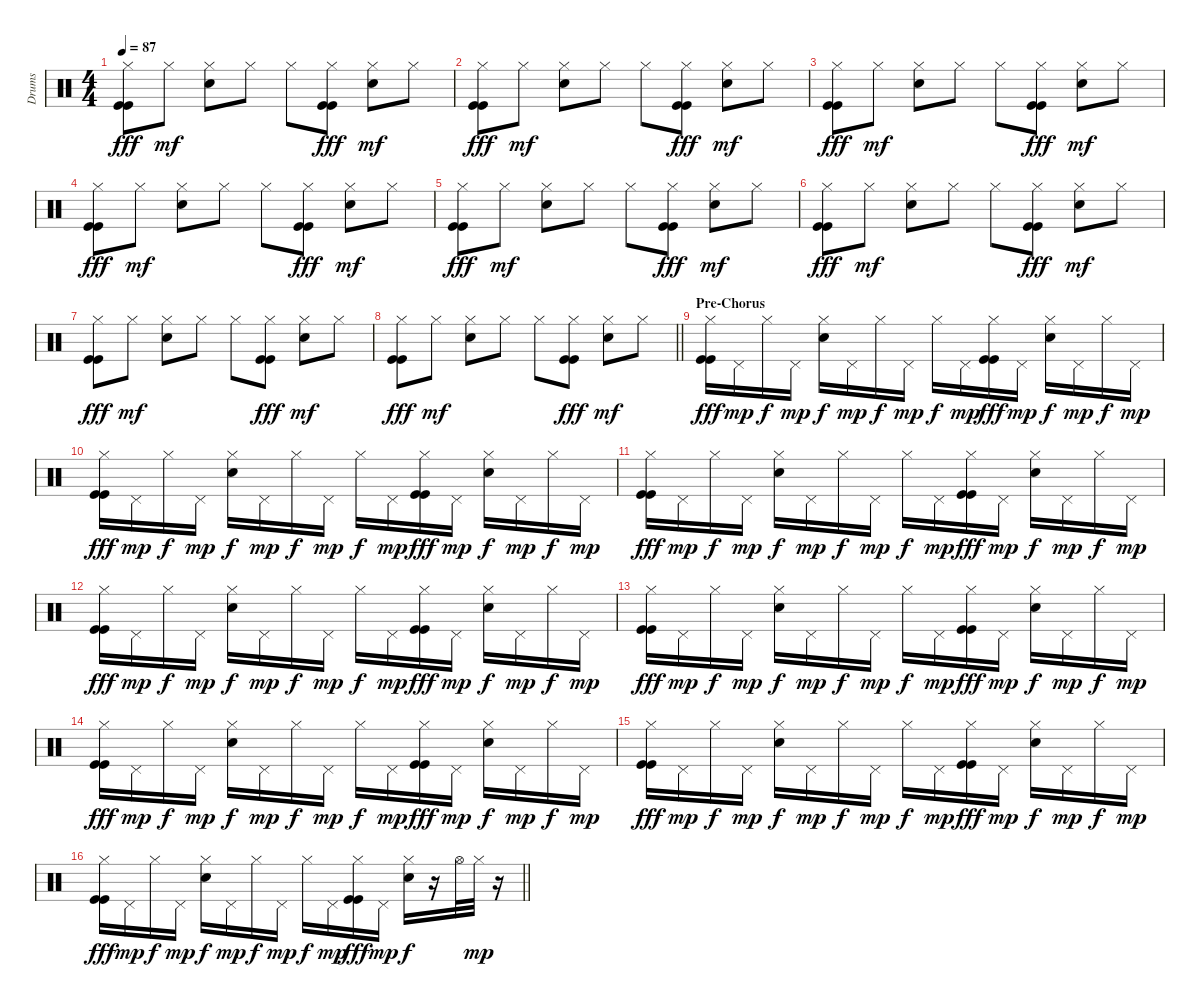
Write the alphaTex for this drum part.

\track ("Drums" "Drums") {instrument percussion}
\staff {score}
\articulation defaults
\ts (4 4)
\tempo 87
\clef neutral
\ks c
("Hi-Hat (closed)" "Kick (hit)" "Kick (hit)").8{dy fff} "Hi-Hat (closed)".8{dy mf} ("Hi-Hat (closed)" "Electric Snare (hit)").8 "Hi-Hat (closed)".8 "Hi-Hat (closed)".8 ("Hi-Hat (closed)" "Kick (hit)" "Kick (hit)").8{dy fff} ("Hi-Hat (closed)" "Electric Snare (hit)").8{dy mf} "Hi-Hat (closed)".8 |
("Hi-Hat (closed)" "Kick (hit)" "Kick (hit)").8{dy fff} "Hi-Hat (closed)".8{dy mf} ("Hi-Hat (closed)" "Electric Snare (hit)").8 "Hi-Hat (closed)".8 "Hi-Hat (closed)".8 ("Hi-Hat (closed)" "Kick (hit)" "Kick (hit)").8{dy fff} ("Hi-Hat (closed)" "Electric Snare (hit)").8{dy mf} "Hi-Hat (closed)".8 |
("Hi-Hat (closed)" "Kick (hit)" "Kick (hit)").8{dy fff} "Hi-Hat (closed)".8{dy mf} ("Hi-Hat (closed)" "Electric Snare (hit)").8 "Hi-Hat (closed)".8 "Hi-Hat (closed)".8 ("Hi-Hat (closed)" "Kick (hit)" "Kick (hit)").8{dy fff} ("Hi-Hat (closed)" "Electric Snare (hit)").8{dy mf} "Hi-Hat (closed)".8 |
("Hi-Hat (closed)" "Kick (hit)" "Kick (hit)").8{dy fff} "Hi-Hat (closed)".8{dy mf} ("Hi-Hat (closed)" "Electric Snare (hit)").8 "Hi-Hat (closed)".8 "Hi-Hat (closed)".8 ("Hi-Hat (closed)" "Kick (hit)" "Kick (hit)").8{dy fff} ("Hi-Hat (closed)" "Electric Snare (hit)").8{dy mf} "Hi-Hat (closed)".8 |
("Hi-Hat (closed)" "Kick (hit)" "Kick (hit)").8{dy fff} "Hi-Hat (closed)".8{dy mf} ("Hi-Hat (closed)" "Electric Snare (hit)").8 "Hi-Hat (closed)".8 "Hi-Hat (closed)".8 ("Hi-Hat (closed)" "Kick (hit)" "Kick (hit)").8{dy fff} ("Hi-Hat (closed)" "Electric Snare (hit)").8{dy mf} "Hi-Hat (closed)".8 |
("Hi-Hat (closed)" "Kick (hit)" "Kick (hit)").8{dy fff} "Hi-Hat (closed)".8{dy mf} ("Hi-Hat (closed)" "Electric Snare (hit)").8 "Hi-Hat (closed)".8 "Hi-Hat (closed)".8 ("Hi-Hat (closed)" "Kick (hit)" "Kick (hit)").8{dy fff} ("Hi-Hat (closed)" "Electric Snare (hit)").8{dy mf} "Hi-Hat (closed)".8 |
("Hi-Hat (closed)" "Kick (hit)" "Kick (hit)").8{dy fff} "Hi-Hat (closed)".8{dy mf} ("Hi-Hat (closed)" "Electric Snare (hit)").8 "Hi-Hat (closed)".8 "Hi-Hat (closed)".8 ("Hi-Hat (closed)" "Kick (hit)" "Kick (hit)").8{dy fff} ("Hi-Hat (closed)" "Electric Snare (hit)").8{dy mf} "Hi-Hat (closed)".8 |
\barLineRight lightlight
("Hi-Hat (closed)" "Kick (hit)" "Kick (hit)").8{dy fff} "Hi-Hat (closed)".8{dy mf} ("Hi-Hat (closed)" "Electric Snare (hit)").8 "Hi-Hat (closed)".8 "Hi-Hat (closed)".8 ("Hi-Hat (closed)" "Kick (hit)" "Kick (hit)").8{dy fff} ("Hi-Hat (closed)" "Electric Snare (hit)").8{dy mf} "Hi-Hat (closed)".8 |
\section ("" "Pre-Chorus")
("Hi-Hat (closed)" "Kick (hit)" "Kick (hit)").16{dy fff} "Pedal Hi-Hat (hit)".16{dy mp} "Hi-Hat (closed)".16{dy f} "Pedal Hi-Hat (hit)".16{dy mp} ("Hi-Hat (closed)" "Electric Snare (hit)").16{dy f} "Pedal Hi-Hat (hit)".16{dy mp} "Hi-Hat (closed)".16{dy f} "Pedal Hi-Hat (hit)".16{dy mp} "Hi-Hat (closed)".16{dy f} "Pedal Hi-Hat (hit)".16{dy mp} ("Hi-Hat (closed)" "Kick (hit)" "Kick (hit)").16{dy fff} "Pedal Hi-Hat (hit)".16{dy mp} ("Hi-Hat (closed)" "Electric Snare (hit)").16{dy f} "Pedal Hi-Hat (hit)".16{dy mp} "Hi-Hat (closed)".16{dy f} "Pedal Hi-Hat (hit)".16{dy mp} |
("Hi-Hat (closed)" "Kick (hit)" "Kick (hit)").16{dy fff} "Pedal Hi-Hat (hit)".16{dy mp} "Hi-Hat (closed)".16{dy f} "Pedal Hi-Hat (hit)".16{dy mp} ("Hi-Hat (closed)" "Electric Snare (hit)").16{dy f} "Pedal Hi-Hat (hit)".16{dy mp} "Hi-Hat (closed)".16{dy f} "Pedal Hi-Hat (hit)".16{dy mp} "Hi-Hat (closed)".16{dy f} "Pedal Hi-Hat (hit)".16{dy mp} ("Hi-Hat (closed)" "Kick (hit)" "Kick (hit)").16{dy fff} "Pedal Hi-Hat (hit)".16{dy mp} ("Hi-Hat (closed)" "Electric Snare (hit)").16{dy f} "Pedal Hi-Hat (hit)".16{dy mp} "Hi-Hat (closed)".16{dy f} "Pedal Hi-Hat (hit)".16{dy mp} |
("Hi-Hat (closed)" "Kick (hit)" "Kick (hit)").16{dy fff} "Pedal Hi-Hat (hit)".16{dy mp} "Hi-Hat (closed)".16{dy f} "Pedal Hi-Hat (hit)".16{dy mp} ("Hi-Hat (closed)" "Electric Snare (hit)").16{dy f} "Pedal Hi-Hat (hit)".16{dy mp} "Hi-Hat (closed)".16{dy f} "Pedal Hi-Hat (hit)".16{dy mp} "Hi-Hat (closed)".16{dy f} "Pedal Hi-Hat (hit)".16{dy mp} ("Hi-Hat (closed)" "Kick (hit)" "Kick (hit)").16{dy fff} "Pedal Hi-Hat (hit)".16{dy mp} ("Hi-Hat (closed)" "Electric Snare (hit)").16{dy f} "Pedal Hi-Hat (hit)".16{dy mp} "Hi-Hat (closed)".16{dy f} "Pedal Hi-Hat (hit)".16{dy mp} |
("Hi-Hat (closed)" "Kick (hit)" "Kick (hit)").16{dy fff} "Pedal Hi-Hat (hit)".16{dy mp} "Hi-Hat (closed)".16{dy f} "Pedal Hi-Hat (hit)".16{dy mp} ("Hi-Hat (closed)" "Electric Snare (hit)").16{dy f} "Pedal Hi-Hat (hit)".16{dy mp} "Hi-Hat (closed)".16{dy f} "Pedal Hi-Hat (hit)".16{dy mp} "Hi-Hat (closed)".16{dy f} "Pedal Hi-Hat (hit)".16{dy mp} ("Hi-Hat (closed)" "Kick (hit)" "Kick (hit)").16{dy fff} "Pedal Hi-Hat (hit)".16{dy mp} ("Hi-Hat (closed)" "Electric Snare (hit)").16{dy f} "Pedal Hi-Hat (hit)".16{dy mp} "Hi-Hat (closed)".16{dy f} "Pedal Hi-Hat (hit)".16{dy mp} |
("Hi-Hat (closed)" "Kick (hit)" "Kick (hit)").16{dy fff} "Pedal Hi-Hat (hit)".16{dy mp} "Hi-Hat (closed)".16{dy f} "Pedal Hi-Hat (hit)".16{dy mp} ("Hi-Hat (closed)" "Electric Snare (hit)").16{dy f} "Pedal Hi-Hat (hit)".16{dy mp} "Hi-Hat (closed)".16{dy f} "Pedal Hi-Hat (hit)".16{dy mp} "Hi-Hat (closed)".16{dy f} "Pedal Hi-Hat (hit)".16{dy mp} ("Hi-Hat (closed)" "Kick (hit)" "Kick (hit)").16{dy fff} "Pedal Hi-Hat (hit)".16{dy mp} ("Hi-Hat (closed)" "Electric Snare (hit)").16{dy f} "Pedal Hi-Hat (hit)".16{dy mp} "Hi-Hat (closed)".16{dy f} "Pedal Hi-Hat (hit)".16{dy mp} |
("Hi-Hat (closed)" "Kick (hit)" "Kick (hit)").16{dy fff} "Pedal Hi-Hat (hit)".16{dy mp} "Hi-Hat (closed)".16{dy f} "Pedal Hi-Hat (hit)".16{dy mp} ("Hi-Hat (closed)" "Electric Snare (hit)").16{dy f} "Pedal Hi-Hat (hit)".16{dy mp} "Hi-Hat (closed)".16{dy f} "Pedal Hi-Hat (hit)".16{dy mp} "Hi-Hat (closed)".16{dy f} "Pedal Hi-Hat (hit)".16{dy mp} ("Hi-Hat (closed)" "Kick (hit)" "Kick (hit)").16{dy fff} "Pedal Hi-Hat (hit)".16{dy mp} ("Hi-Hat (closed)" "Electric Snare (hit)").16{dy f} "Pedal Hi-Hat (hit)".16{dy mp} "Hi-Hat (closed)".16{dy f} "Pedal Hi-Hat (hit)".16{dy mp} |
("Hi-Hat (closed)" "Kick (hit)" "Kick (hit)").16{dy fff} "Pedal Hi-Hat (hit)".16{dy mp} "Hi-Hat (closed)".16{dy f} "Pedal Hi-Hat (hit)".16{dy mp} ("Hi-Hat (closed)" "Electric Snare (hit)").16{dy f} "Pedal Hi-Hat (hit)".16{dy mp} "Hi-Hat (closed)".16{dy f} "Pedal Hi-Hat (hit)".16{dy mp} "Hi-Hat (closed)".16{dy f} "Pedal Hi-Hat (hit)".16{dy mp} ("Hi-Hat (closed)" "Kick (hit)" "Kick (hit)").16{dy fff} "Pedal Hi-Hat (hit)".16{dy mp} ("Hi-Hat (closed)" "Electric Snare (hit)").16{dy f} "Pedal Hi-Hat (hit)".16{dy mp} "Hi-Hat (closed)".16{dy f} "Pedal Hi-Hat (hit)".16{dy mp} |
\barLineRight lightlight
("Hi-Hat (closed)" "Kick (hit)" "Kick (hit)").16{dy fff} "Pedal Hi-Hat (hit)".16{dy mp} "Hi-Hat (closed)".16{dy f} "Pedal Hi-Hat (hit)".16{dy mp} ("Hi-Hat (closed)" "Electric Snare (hit)").16{dy f} "Pedal Hi-Hat (hit)".16{dy mp} "Hi-Hat (closed)".16{dy f} "Pedal Hi-Hat (hit)".16{dy mp} "Hi-Hat (closed)".16{dy f} "Pedal Hi-Hat (hit)".16{dy mp} ("Hi-Hat (closed)" "Kick (hit)" "Kick (hit)").16{dy fff} "Pedal Hi-Hat (hit)".16{dy mp} ("Hi-Hat (closed)" "Electric Snare (hit)").16{dy f} r.16 "Hi-Hat (open)".32 "Hi-Hat (closed)".32{dy mp} r.16
